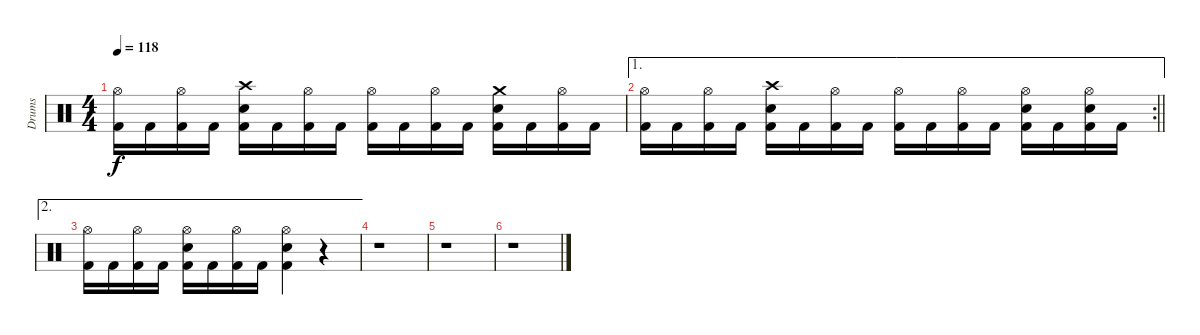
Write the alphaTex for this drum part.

\track ("Drums" "Drums") {instrument percussion}
\staff {score}
\articulation defaults
\ts (4 4)
\tempo 118
\clef neutral
\ks c
("Hi-Hat (open)" "Kick (hit) 2").16{dy f} "Kick (hit) 2".16 ("Hi-Hat (open)" "Kick (hit) 2").16 "Kick (hit) 2".16 ("Crash high (hit)" "Electric Snare (hit)" "Kick (hit) 2").16 "Kick (hit) 2".16 ("Hi-Hat (open)" "Kick (hit) 2").16 "Kick (hit) 2".16 ("Hi-Hat (open)" "Kick (hit) 2").16 "Kick (hit) 2".16 ("Hi-Hat (open)" "Kick (hit) 2").16 "Kick (hit) 2".16 ("Crash medium (hit)" "Electric Snare (hit)" "Kick (hit) 2").16 "Kick (hit) 2".16 ("Hi-Hat (open)" "Kick (hit) 2").16 "Kick (hit) 2".16 |
\ae 1
\rc 2
\barLineRight lightlight
("Hi-Hat (open)" "Kick (hit) 2").16 "Kick (hit) 2".16 ("Hi-Hat (open)" "Kick (hit) 2").16 "Kick (hit) 2".16 ("Crash high (hit)" "Electric Snare (hit)" "Kick (hit) 2").16 "Kick (hit) 2".16 ("Hi-Hat (open)" "Kick (hit) 2").16 "Kick (hit) 2".16 ("Hi-Hat (open)" "Kick (hit) 2").16 "Kick (hit) 2".16 ("Hi-Hat (open)" "Kick (hit) 2").16 "Kick (hit) 2".16 ("Hi-Hat (open)" "Electric Snare (hit)" "Kick (hit) 2").16 "Kick (hit) 2".16 ("Hi-Hat (open)" "Electric Snare (hit)" "Kick (hit) 2").16 "Kick (hit) 2".16 |
\ae 2
("Hi-Hat (open)" "Kick (hit) 2").16 "Kick (hit) 2".16 ("Hi-Hat (open)" "Kick (hit) 2").16 "Kick (hit) 2".16 ("Hi-Hat (open)" "Electric Snare (hit)" "Kick (hit) 2").16 "Kick (hit) 2".16 ("Hi-Hat (open)" "Kick (hit) 2").16 "Kick (hit) 2".16 ("Hi-Hat (open)" "Electric Snare (hit)" "Kick (hit) 2").4 r.4 |
r.1 |
r.1 |
r.1
